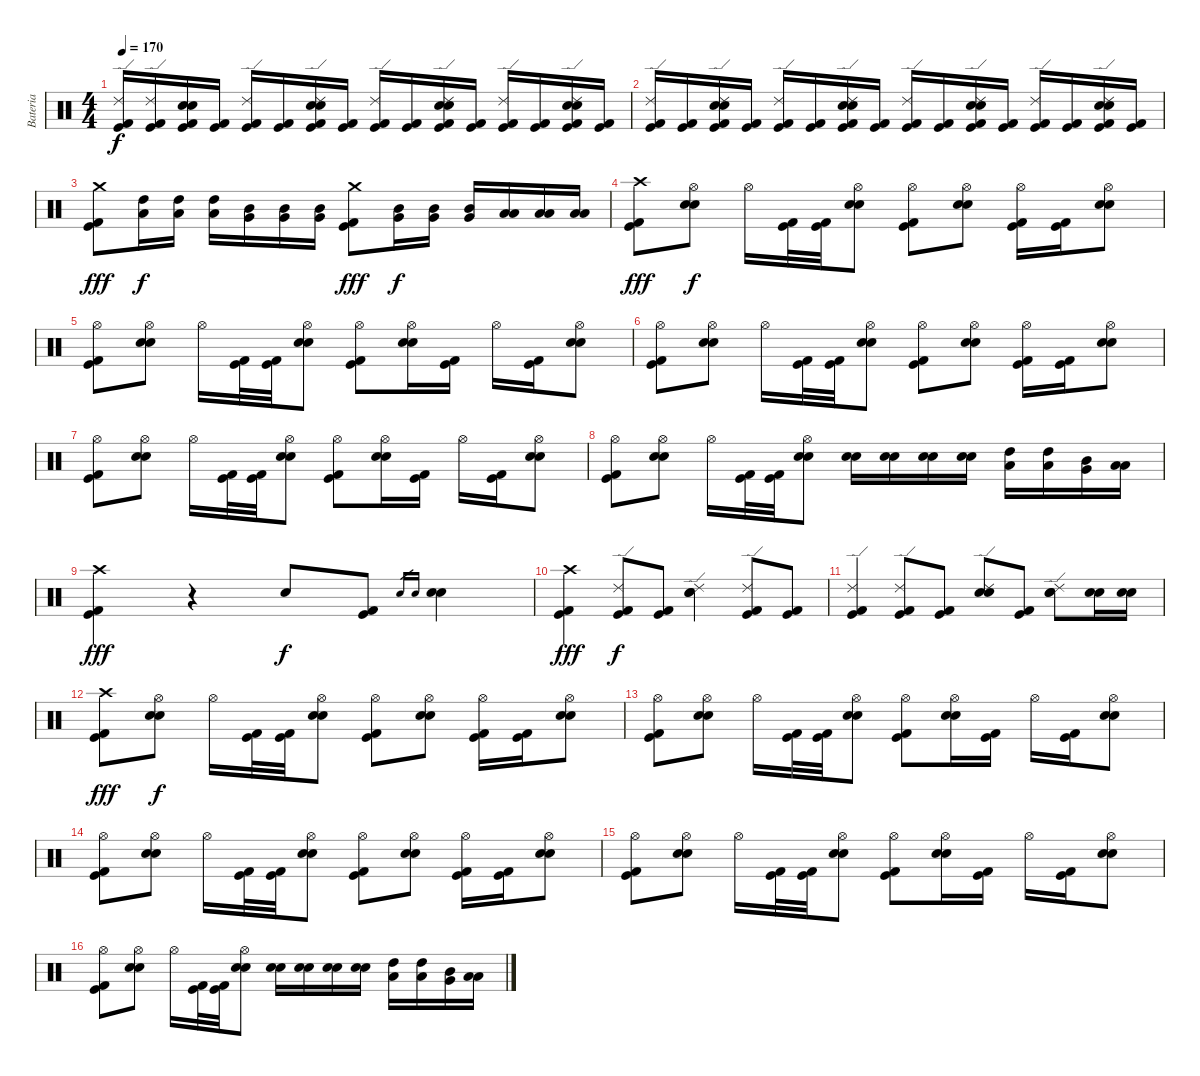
\track ("Bateria" "Bateria") {instrument percussion}
\staff {score}
\articulation defaults
\ts (4 4)
\tempo 170
\clef neutral
\ks c
("Ride (edge) 2" "Kick (hit) 2" "Kick (hit)").16{dy f} ("Ride (edge) 2" "Kick (hit) 2" "Kick (hit)").16 ("Electric Snare (hit)" "Snare (hit) 2" "Kick (hit) 2" "Kick (hit)").16 ("Kick (hit) 2" "Kick (hit)").16 ("Ride (edge) 2" "Kick (hit) 2" "Kick (hit)").16 ("Kick (hit) 2" "Kick (hit)").16 ("Ride (edge) 2" "Electric Snare (hit)" "Snare (hit) 2" "Kick (hit) 2" "Kick (hit)").16 ("Kick (hit) 2" "Kick (hit)").16 ("Ride (edge) 2" "Kick (hit) 2" "Kick (hit)").16 ("Kick (hit) 2" "Kick (hit)").16 ("Ride (edge) 2" "Electric Snare (hit)" "Snare (hit) 2" "Kick (hit) 2" "Kick (hit)").16 ("Kick (hit) 2" "Kick (hit)").16 ("Ride (edge) 2" "Kick (hit) 2" "Kick (hit)").16 ("Kick (hit) 2" "Kick (hit)").16 ("Ride (edge) 2" "Electric Snare (hit)" "Snare (hit) 2" "Kick (hit) 2" "Kick (hit)").16 ("Kick (hit) 2" "Kick (hit)").16 |
("Ride (edge) 2" "Kick (hit) 2" "Kick (hit)").16 ("Kick (hit) 2" "Kick (hit)").16 ("Ride (edge) 2" "Electric Snare (hit)" "Snare (hit) 2" "Kick (hit) 2" "Kick (hit)").16 ("Kick (hit) 2" "Kick (hit)").16 ("Ride (edge) 2" "Kick (hit) 2" "Kick (hit)").16 ("Kick (hit) 2" "Kick (hit)").16 ("Ride (edge) 2" "Electric Snare (hit)" "Snare (hit) 2" "Kick (hit) 2" "Kick (hit)").16 ("Kick (hit) 2" "Kick (hit)").16 ("Ride (edge) 2" "Kick (hit) 2" "Kick (hit)").16 ("Kick (hit) 2" "Kick (hit)").16 ("Ride (edge) 2" "Electric Snare (hit)" "Snare (hit) 2" "Kick (hit) 2" "Kick (hit)").16 ("Kick (hit) 2" "Kick (hit)").16 ("Ride (edge) 2" "Kick (hit) 2" "Kick (hit)").16 ("Kick (hit) 2" "Kick (hit)").16 ("Ride (edge) 2" "Electric Snare (hit)" "Snare (hit) 2" "Kick (hit) 2" "Kick (hit)").16 ("Kick (hit) 2" "Kick (hit)").16 |
("Crash medium (hit)" "Kick (hit) 2" "Kick (hit)").8{dy fff} ("High Tom (hit)" "Low Tom (hit)").16{dy f} ("High Tom (hit)" "Low Tom (hit)").16 ("High Tom (hit)" "Low Tom (hit)").16 ("Mid Tom (hit)" "Very Low Tom (hit)").16 ("Mid Tom (hit)" "Very Low Tom (hit)").16 ("Mid Tom (hit)" "Very Low Tom (hit)").16 ("Crash medium (hit)" "Kick (hit) 2" "Kick (hit)").8{dy fff} ("Mid Tom (hit)" "Very Low Tom (hit)").16{dy f} ("Mid Tom (hit)" "Very Low Tom (hit)").16 ("Mid Tom (hit)" "Very Low Tom (hit)").16 ("Low Tom (hit)" "Low Floor Tom (hit)").16 ("Low Tom (hit)" "Low Floor Tom (hit)").16 ("Low Tom (hit)" "Low Floor Tom (hit)").16 |
("Crash high (hit)" "Kick (hit) 2" "Kick (hit)").8{dy fff} ("Hi-Hat (open)" "Electric Snare (hit)" "Snare (hit) 2").8{dy f} "Hi-Hat (open)".16 ("Kick (hit) 2" "Kick (hit)").32 ("Kick (hit) 2" "Kick (hit)").32 ("Hi-Hat (open)" "Electric Snare (hit)" "Snare (hit) 2").8 ("Hi-Hat (open)" "Kick (hit) 2" "Kick (hit)").8 ("Hi-Hat (open)" "Electric Snare (hit)" "Snare (hit) 2").8 ("Hi-Hat (open)" "Kick (hit) 2" "Kick (hit)").16 ("Kick (hit) 2" "Kick (hit)").16 ("Hi-Hat (open)" "Electric Snare (hit)" "Snare (hit) 2").8 |
("Hi-Hat (open)" "Kick (hit) 2" "Kick (hit)").8 ("Hi-Hat (open)" "Electric Snare (hit)" "Snare (hit) 2").8 "Hi-Hat (open)".16 ("Kick (hit) 2" "Kick (hit)").32 ("Kick (hit) 2" "Kick (hit)").32 ("Hi-Hat (open)" "Electric Snare (hit)" "Snare (hit) 2").8 ("Hi-Hat (open)" "Kick (hit) 2" "Kick (hit)").8 ("Hi-Hat (open)" "Electric Snare (hit)" "Snare (hit) 2").16 ("Kick (hit) 2" "Kick (hit)").16 "Hi-Hat (open)".16 ("Kick (hit) 2" "Kick (hit)").16 ("Hi-Hat (open)" "Electric Snare (hit)" "Snare (hit) 2").8 |
("Hi-Hat (open)" "Kick (hit) 2" "Kick (hit)").8 ("Hi-Hat (open)" "Electric Snare (hit)" "Snare (hit) 2").8 "Hi-Hat (open)".16 ("Kick (hit) 2" "Kick (hit)").32 ("Kick (hit) 2" "Kick (hit)").32 ("Hi-Hat (open)" "Electric Snare (hit)" "Snare (hit) 2").8 ("Hi-Hat (open)" "Kick (hit) 2" "Kick (hit)").8 ("Hi-Hat (open)" "Electric Snare (hit)" "Snare (hit) 2").8 ("Hi-Hat (open)" "Kick (hit) 2" "Kick (hit)").16 ("Kick (hit) 2" "Kick (hit)").16 ("Hi-Hat (open)" "Electric Snare (hit)" "Snare (hit) 2").8 |
("Hi-Hat (open)" "Kick (hit) 2" "Kick (hit)").8 ("Hi-Hat (open)" "Electric Snare (hit)" "Snare (hit) 2").8 "Hi-Hat (open)".16 ("Kick (hit) 2" "Kick (hit)").32 ("Kick (hit) 2" "Kick (hit)").32 ("Hi-Hat (open)" "Electric Snare (hit)" "Snare (hit) 2").8 ("Hi-Hat (open)" "Kick (hit) 2" "Kick (hit)").8 ("Hi-Hat (open)" "Electric Snare (hit)" "Snare (hit) 2").16 ("Kick (hit) 2" "Kick (hit)").16 "Hi-Hat (open)".16 ("Kick (hit) 2" "Kick (hit)").16 ("Hi-Hat (open)" "Electric Snare (hit)" "Snare (hit) 2").8 |
("Hi-Hat (open)" "Kick (hit) 2" "Kick (hit)").8 ("Hi-Hat (open)" "Electric Snare (hit)" "Snare (hit) 2").8 "Hi-Hat (open)".16 ("Kick (hit) 2" "Kick (hit)").32 ("Kick (hit) 2" "Kick (hit)").32 ("Hi-Hat (open)" "Electric Snare (hit)" "Snare (hit) 2").8 ("Electric Snare (hit)" "Snare (hit) 2").16 ("Electric Snare (hit)" "Snare (hit) 2").16 ("Electric Snare (hit)" "Snare (hit) 2").16 ("Electric Snare (hit)" "Snare (hit) 2").16 ("High Tom (hit)" "Low Tom (hit)").16 ("High Tom (hit)" "Low Tom (hit)").16 ("Mid Tom (hit)" "Very Low Tom (hit)").16 ("Low Tom (hit)" "Low Floor Tom (hit)").16 |
("Crash high (hit)" "Kick (hit) 2" "Kick (hit)").4{dy fff} r.4 "Snare (hit)"{x}.8{dy f} ("Kick (hit) 2" "Kick (hit)").8 "Electric Snare (hit)".16{gr} "Snare (hit) 2".16{gr} ("Electric Snare (hit)" "Snare (hit) 2").4 |
("Crash high (hit)" "Kick (hit) 2" "Kick (hit)").4{dy fff} ("Ride (edge) 2" "Kick (hit) 2" "Kick (hit)").8{dy f} ("Kick (hit) 2" "Kick (hit)").8 ("Ride (edge) 2" "Electric Snare (hit)" "Snare (hit) 2").4 ("Ride (edge) 2" "Kick (hit) 2" "Kick (hit)").8 ("Kick (hit) 2" "Kick (hit)").8 |
("Ride (edge) 2" "Kick (hit) 2" "Kick (hit)").4 ("Ride (edge) 2" "Kick (hit) 2" "Kick (hit)").8 ("Kick (hit) 2" "Kick (hit)").8 ("Ride (edge) 2" "Electric Snare (hit)" "Snare (hit) 2").8 ("Kick (hit) 2" "Kick (hit)").8 ("Ride (edge) 2" "Electric Snare (hit)" "Snare (hit) 2").8 ("Electric Snare (hit)" "Snare (hit) 2").16 ("Electric Snare (hit)" "Snare (hit) 2").16 |
("Crash high (hit)" "Kick (hit) 2" "Kick (hit)").8{dy fff} ("Hi-Hat (open)" "Electric Snare (hit)" "Snare (hit) 2").8{dy f} "Hi-Hat (open)".16 ("Kick (hit) 2" "Kick (hit)").32 ("Kick (hit) 2" "Kick (hit)").32 ("Hi-Hat (open)" "Electric Snare (hit)" "Snare (hit) 2").8 ("Hi-Hat (open)" "Kick (hit) 2" "Kick (hit)").8 ("Hi-Hat (open)" "Electric Snare (hit)" "Snare (hit) 2").8 ("Hi-Hat (open)" "Kick (hit) 2" "Kick (hit)").16 ("Kick (hit) 2" "Kick (hit)").16 ("Hi-Hat (open)" "Electric Snare (hit)" "Snare (hit) 2").8 |
("Hi-Hat (open)" "Kick (hit) 2" "Kick (hit)").8 ("Hi-Hat (open)" "Electric Snare (hit)" "Snare (hit) 2").8 "Hi-Hat (open)".16 ("Kick (hit) 2" "Kick (hit)").32 ("Kick (hit) 2" "Kick (hit)").32 ("Hi-Hat (open)" "Electric Snare (hit)" "Snare (hit) 2").8 ("Hi-Hat (open)" "Kick (hit) 2" "Kick (hit)").8 ("Hi-Hat (open)" "Electric Snare (hit)" "Snare (hit) 2").16 ("Kick (hit) 2" "Kick (hit)").16 "Hi-Hat (open)".16 ("Kick (hit) 2" "Kick (hit)").16 ("Hi-Hat (open)" "Electric Snare (hit)" "Snare (hit) 2").8 |
("Hi-Hat (open)" "Kick (hit) 2" "Kick (hit)").8 ("Hi-Hat (open)" "Electric Snare (hit)" "Snare (hit) 2").8 "Hi-Hat (open)".16 ("Kick (hit) 2" "Kick (hit)").32 ("Kick (hit) 2" "Kick (hit)").32 ("Hi-Hat (open)" "Electric Snare (hit)" "Snare (hit) 2").8 ("Hi-Hat (open)" "Kick (hit) 2" "Kick (hit)").8 ("Hi-Hat (open)" "Electric Snare (hit)" "Snare (hit) 2").8 ("Hi-Hat (open)" "Kick (hit) 2" "Kick (hit)").16 ("Kick (hit) 2" "Kick (hit)").16 ("Hi-Hat (open)" "Electric Snare (hit)" "Snare (hit) 2").8 |
("Hi-Hat (open)" "Kick (hit) 2" "Kick (hit)").8 ("Hi-Hat (open)" "Electric Snare (hit)" "Snare (hit) 2").8 "Hi-Hat (open)".16 ("Kick (hit) 2" "Kick (hit)").32 ("Kick (hit) 2" "Kick (hit)").32 ("Hi-Hat (open)" "Electric Snare (hit)" "Snare (hit) 2").8 ("Hi-Hat (open)" "Kick (hit) 2" "Kick (hit)").8 ("Hi-Hat (open)" "Electric Snare (hit)" "Snare (hit) 2").16 ("Kick (hit) 2" "Kick (hit)").16 "Hi-Hat (open)".16 ("Kick (hit) 2" "Kick (hit)").16 ("Hi-Hat (open)" "Electric Snare (hit)" "Snare (hit) 2").8 |
("Hi-Hat (open)" "Kick (hit) 2" "Kick (hit)").8 ("Hi-Hat (open)" "Electric Snare (hit)" "Snare (hit) 2").8 "Hi-Hat (open)".16 ("Kick (hit) 2" "Kick (hit)").32 ("Kick (hit) 2" "Kick (hit)").32 ("Hi-Hat (open)" "Electric Snare (hit)" "Snare (hit) 2").8 ("Electric Snare (hit)" "Snare (hit) 2").16 ("Electric Snare (hit)" "Snare (hit) 2").16 ("Electric Snare (hit)" "Snare (hit) 2").16 ("Electric Snare (hit)" "Snare (hit) 2").16 ("High Tom (hit)" "Low Tom (hit)").16 ("High Tom (hit)" "Low Tom (hit)").16 ("Mid Tom (hit)" "Very Low Tom (hit)").16 ("Low Tom (hit)" "Low Floor Tom (hit)").16
